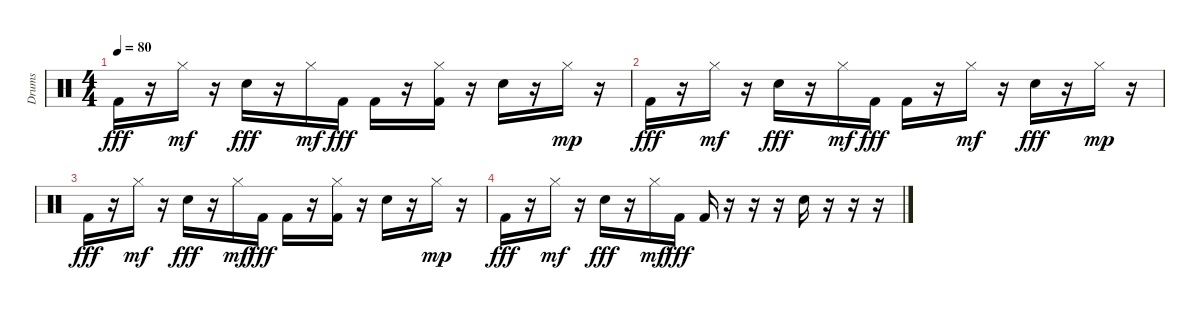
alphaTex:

\track ("Drums" "Drums") {instrument percussion}
\staff
\articulation defaults
\ts (4 4)
\tempo 80
\clef neutral
\ks c "Kick (hit) 2".16{dy fff}
r.16 "Hi-Hat (closed)".16{dy mf} r.16 "Electric Snare (hit)".16{dy fff} r.16 "Hi-Hat (closed)".16{dy mf} "Kick (hit) 2".16{dy fff} "Kick (hit) 2".16 r.16 ("Hi-Hat (closed)" "Kick (hit) 2").16 r.16 "Electric Snare (hit)".16 r.16 "Hi-Hat (closed)".16{dy mp} r.16 |
"Kick (hit) 2".16{dy fff} r.16 "Hi-Hat (closed)".16{dy mf} r.16 "Electric Snare (hit)".16{dy fff} r.16 "Hi-Hat (closed)".16{dy mf} "Kick (hit) 2".16{dy fff} "Kick (hit) 2".16 r.16 "Hi-Hat (closed)".16{dy mf} r.16 "Electric Snare (hit)".16{dy fff} r.16 "Hi-Hat (closed)".16{dy mp} r.16 |
"Kick (hit) 2".16{dy fff} r.16 "Hi-Hat (closed)".16{dy mf} r.16 "Electric Snare (hit)".16{dy fff} r.16 "Hi-Hat (closed)".16{dy mf} "Kick (hit) 2".16{dy fff} "Kick (hit) 2".16 r.16 ("Hi-Hat (closed)" "Kick (hit) 2").16 r.16 "Electric Snare (hit)".16 r.16 "Hi-Hat (closed)".16{dy mp} r.16 |
"Kick (hit) 2".16{dy fff} r.16 "Hi-Hat (closed)".16{dy mf} r.16 "Electric Snare (hit)".16{dy fff} r.16 "Hi-Hat (closed)".16{dy mf} "Kick (hit) 2".16{dy fff} "Kick (hit) 2".16 r.16 r.16 r.16 "Electric Snare (hit)".16 r.16 r.16 r.16
